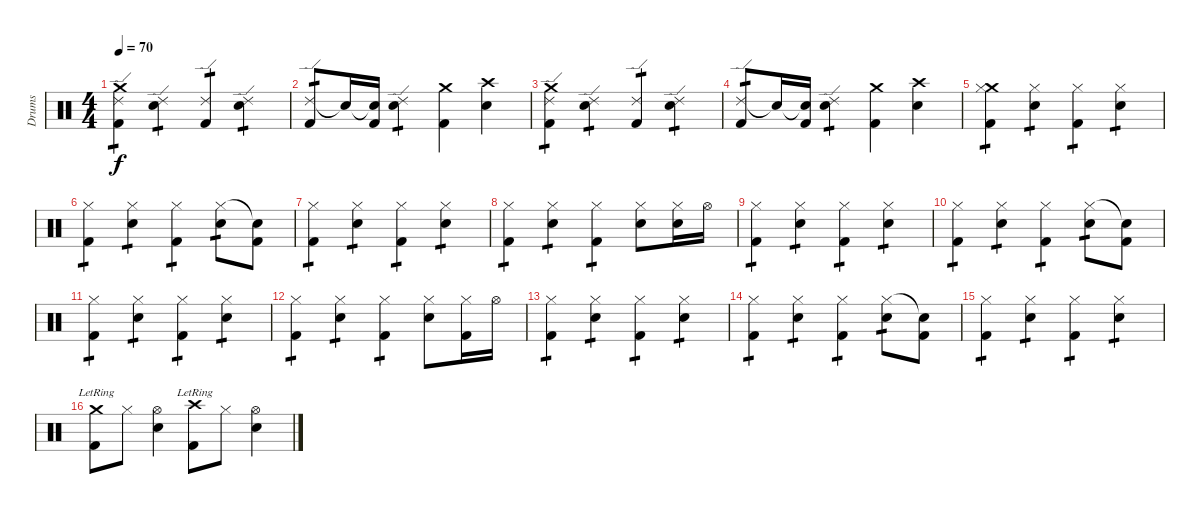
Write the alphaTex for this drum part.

\track ("Drums" "Drums") {instrument percussion}
\staff {score}
\articulation defaults
\ts (4 4)
\tempo 70
\clef neutral
\ks c
("Crash medium (hit)" "Ride (edge) 2" "Kick (hit) 2").4{tp 1 dy f} ("Ride (edge) 2" "Snare (hit) 2").4{tp 1} ("Ride (edge) 2" "Kick (hit) 2").4{tp 1} ("Ride (edge) 2" "Snare (hit) 2").4{tp 1} |
("Ride (edge) 2" "Kick (hit) 2").8{tp 1} "Snare (hit)"{t}.16 ("Snare (hit)"{t} "Kick (hit) 2").16 ("Ride (edge) 2" "Snare (hit) 2").4{tp 1} ("Crash medium (hit)" "Kick (hit) 2").4 ("Crash high (hit)" "Snare (hit) 2").4 |
("Crash medium (hit)" "Ride (edge) 2" "Kick (hit) 2").4{tp 1} ("Ride (edge) 2" "Snare (hit) 2").4{tp 1} ("Ride (edge) 2" "Kick (hit) 2").4{tp 1} ("Ride (edge) 2" "Snare (hit) 2").4{tp 1} |
("Ride (edge) 2" "Kick (hit) 2").8{tp 1} "Snare (hit)"{t}.16 ("Snare (hit)"{t} "Kick (hit) 2").16 ("Ride (edge) 2" "Snare (hit) 2").4{tp 1} ("Crash medium (hit)" "Kick (hit) 2").4 ("Crash high (hit)" "Snare (hit) 2").4 |
("Crash medium (hit)" "Hi-Hat (closed)" "Kick (hit) 2").4{tp 1} ("Hi-Hat (closed)" "Snare (hit) 2").4{tp 1} ("Hi-Hat (closed)" "Kick (hit) 2").4{tp 1} ("Hi-Hat (closed)" "Snare (hit) 2").4{tp 1} |
("Hi-Hat (closed)" "Kick (hit) 2").4{tp 1} ("Hi-Hat (closed)" "Snare (hit) 2").4{tp 1} ("Hi-Hat (closed)" "Kick (hit) 2").4{tp 1} ("Hi-Hat (closed)" "Snare (hit) 2").8{tp 1} ("Snare (hit)"{t} "Kick (hit) 2").8 |
("Hi-Hat (closed)" "Kick (hit) 2").4{tp 1} ("Hi-Hat (closed)" "Snare (hit) 2").4{tp 1} ("Hi-Hat (closed)" "Kick (hit) 2").4{tp 1} ("Hi-Hat (closed)" "Snare (hit) 2").4{tp 1} |
("Hi-Hat (closed)" "Kick (hit) 2").4{tp 1} ("Hi-Hat (closed)" "Snare (hit) 2").4{tp 1} ("Hi-Hat (closed)" "Kick (hit) 2").4{tp 1} ("Hi-Hat (closed)" "Snare (hit) 2").8 ("Hi-Hat (closed)" "Snare (hit) 2").16 "Hi-Hat (open)".16 |
("Hi-Hat (closed)" "Kick (hit) 2").4{tp 1} ("Hi-Hat (closed)" "Snare (hit) 2").4{tp 1} ("Hi-Hat (closed)" "Kick (hit) 2").4{tp 1} ("Hi-Hat (closed)" "Snare (hit) 2").4{tp 1} |
("Hi-Hat (closed)" "Kick (hit) 2").4{tp 1} ("Hi-Hat (closed)" "Snare (hit) 2").4{tp 1} ("Hi-Hat (closed)" "Kick (hit) 2").4{tp 1} ("Hi-Hat (closed)" "Snare (hit) 2").8{tp 1} ("Snare (hit)"{t} "Kick (hit) 2").8 |
("Hi-Hat (closed)" "Kick (hit) 2").4{tp 1} ("Hi-Hat (closed)" "Snare (hit) 2").4{tp 1} ("Hi-Hat (closed)" "Kick (hit) 2").4{tp 1} ("Hi-Hat (closed)" "Snare (hit) 2").4{tp 1} |
("Hi-Hat (closed)" "Kick (hit) 2").4{tp 1} ("Hi-Hat (closed)" "Snare (hit) 2").4{tp 1} ("Hi-Hat (closed)" "Kick (hit) 2").4{tp 1} ("Hi-Hat (closed)" "Snare (hit) 2").8 ("Hi-Hat (closed)" "Kick (hit) 2").16 "Hi-Hat (open)".16 |
("Hi-Hat (closed)" "Kick (hit) 2").4{tp 1} ("Hi-Hat (closed)" "Snare (hit) 2").4{tp 1} ("Hi-Hat (closed)" "Kick (hit) 2").4{tp 1} ("Hi-Hat (closed)" "Snare (hit) 2").4{tp 1} |
("Hi-Hat (closed)" "Kick (hit) 2").4{tp 1} ("Hi-Hat (closed)" "Snare (hit) 2").4{tp 1} ("Hi-Hat (closed)" "Kick (hit) 2").4{tp 1} ("Hi-Hat (closed)" "Snare (hit) 2").8{tp 1} ("Snare (hit)"{t} "Kick (hit) 2").8 |
("Hi-Hat (closed)" "Kick (hit) 2").4{tp 1} ("Hi-Hat (closed)" "Snare (hit) 2").4{tp 1} ("Hi-Hat (closed)" "Kick (hit) 2").4{tp 1} ("Hi-Hat (closed)" "Snare (hit) 2").4{tp 1} |
("Crash medium (hit)"{lr} "Kick (hit) 2").8 "Hi-Hat (closed)".8 ("Hi-Hat (open)" "Snare (hit) 2").4 ("Crash high (hit)"{lr} "Kick (hit) 2").8 "Hi-Hat (closed)".8 ("Hi-Hat (open)" "Snare (hit) 2").4
